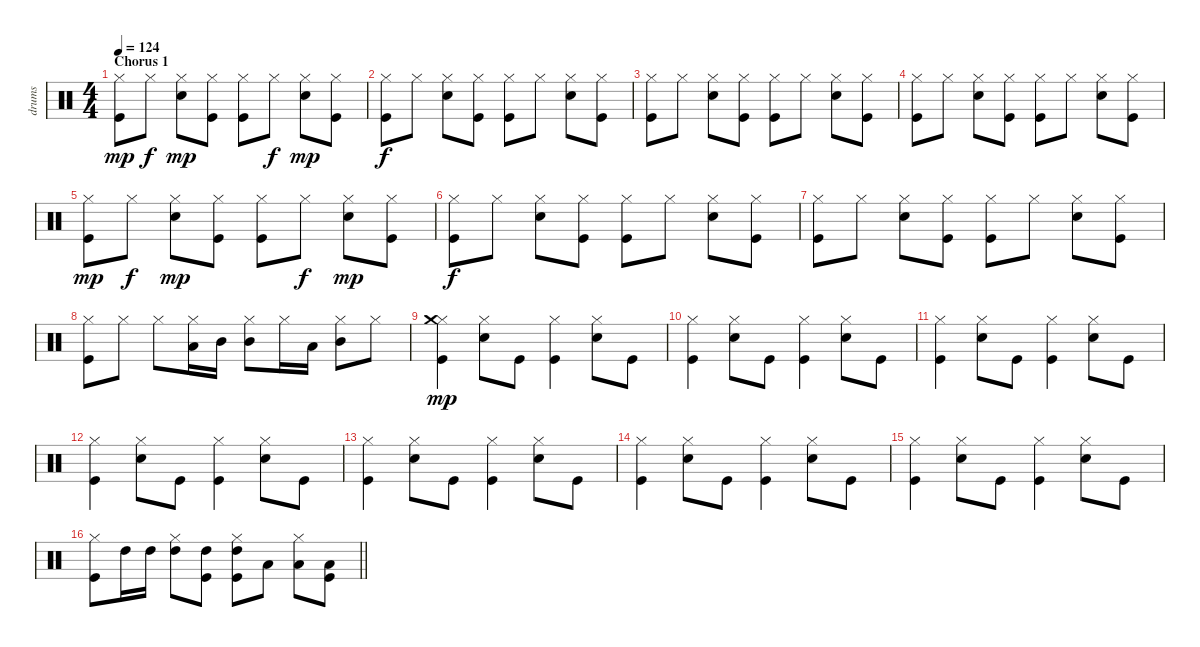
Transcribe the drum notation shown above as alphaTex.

\track ("drums" "drums") {instrument percussion}
\staff {score}
\articulation defaults
\ts (4 4)
\section ("" "Chorus 1")
\tempo 124
\clef neutral
\ks c
("Hi-Hat (closed)" "Kick (hit)").8{dy mp} "Hi-Hat (closed)".8{dy f} ("Electric Snare (hit)" "Hi-Hat (closed)").8{dy mp} ("Hi-Hat (closed)" "Kick (hit)").8 ("Hi-Hat (closed)" "Kick (hit)").8 "Hi-Hat (closed)".8{dy f} ("Electric Snare (hit)" "Hi-Hat (closed)").8{dy mp} ("Hi-Hat (closed)" "Kick (hit)").8 |
("Hi-Hat (closed)" "Kick (hit)").8{dy f} "Hi-Hat (closed)".8 ("Electric Snare (hit)" "Hi-Hat (closed)").8 ("Hi-Hat (closed)" "Kick (hit)").8 ("Hi-Hat (closed)" "Kick (hit)").8 "Hi-Hat (closed)".8 ("Electric Snare (hit)" "Hi-Hat (closed)").8 ("Hi-Hat (closed)" "Kick (hit)").8 |
("Hi-Hat (closed)" "Kick (hit)").8 "Hi-Hat (closed)".8 ("Electric Snare (hit)" "Hi-Hat (closed)").8 ("Hi-Hat (closed)" "Kick (hit)").8 ("Hi-Hat (closed)" "Kick (hit)").8 "Hi-Hat (closed)".8 ("Electric Snare (hit)" "Hi-Hat (closed)").8 ("Hi-Hat (closed)" "Kick (hit)").8 |
("Hi-Hat (closed)" "Kick (hit)").8 "Hi-Hat (closed)".8 ("Electric Snare (hit)" "Hi-Hat (closed)").8 ("Hi-Hat (closed)" "Kick (hit)").8 ("Hi-Hat (closed)" "Kick (hit)").8 "Hi-Hat (closed)".8 ("Electric Snare (hit)" "Hi-Hat (closed)").8 ("Hi-Hat (closed)" "Kick (hit)").8 |
("Hi-Hat (closed)" "Kick (hit)").8{dy mp} "Hi-Hat (closed)".8{dy f} ("Electric Snare (hit)" "Hi-Hat (closed)").8{dy mp} ("Hi-Hat (closed)" "Kick (hit)").8 ("Hi-Hat (closed)" "Kick (hit)").8 "Hi-Hat (closed)".8{dy f} ("Electric Snare (hit)" "Hi-Hat (closed)").8{dy mp} ("Hi-Hat (closed)" "Kick (hit)").8 |
("Hi-Hat (closed)" "Kick (hit)").8{dy f} "Hi-Hat (closed)".8 ("Electric Snare (hit)" "Hi-Hat (closed)").8 ("Hi-Hat (closed)" "Kick (hit)").8 ("Hi-Hat (closed)" "Kick (hit)").8 "Hi-Hat (closed)".8 ("Electric Snare (hit)" "Hi-Hat (closed)").8 ("Hi-Hat (closed)" "Kick (hit)").8 |
("Hi-Hat (closed)" "Kick (hit)").8 "Hi-Hat (closed)".8 ("Electric Snare (hit)" "Hi-Hat (closed)").8 ("Hi-Hat (closed)" "Kick (hit)").8 ("Hi-Hat (closed)" "Kick (hit)").8 "Hi-Hat (closed)".8 ("Electric Snare (hit)" "Hi-Hat (closed)").8 ("Hi-Hat (closed)" "Kick (hit)").8 |
("Hi-Hat (closed)" "Kick (hit)").8 "Hi-Hat (closed)".8 "Hi-Hat (closed)".8 ("Low Tom (hit)" "Hi-Hat (closed)").16 "Mid Tom (hit)".16 ("Mid Tom (hit)" "Hi-Hat (closed)").8 "Hi-Hat (closed)".16 "Low Tom (hit)".16 ("Mid Tom (hit)" "Hi-Hat (closed)").8 "Hi-Hat (closed)".8 |
("Kick (hit)" "Hi-Hat (closed)" "Crash medium (hit)").4{dy mp} ("Electric Snare (hit)" "Hi-Hat (closed)").8 "Kick (hit)".8 ("Kick (hit)" "Hi-Hat (closed)").4 ("Electric Snare (hit)" "Hi-Hat (closed)").8 "Kick (hit)".8 |
("Kick (hit)" "Hi-Hat (closed)").4 ("Electric Snare (hit)" "Hi-Hat (closed)").8 "Kick (hit)".8 ("Kick (hit)" "Hi-Hat (closed)").4 ("Electric Snare (hit)" "Hi-Hat (closed)").8 "Kick (hit)".8 |
("Kick (hit)" "Hi-Hat (closed)").4 ("Electric Snare (hit)" "Hi-Hat (closed)").8 "Kick (hit)".8 ("Kick (hit)" "Hi-Hat (closed)").4 ("Electric Snare (hit)" "Hi-Hat (closed)").8 "Kick (hit)".8 |
("Kick (hit)" "Hi-Hat (closed)").4 ("Electric Snare (hit)" "Hi-Hat (closed)").8 "Kick (hit)".8 ("Kick (hit)" "Hi-Hat (closed)").4 ("Electric Snare (hit)" "Hi-Hat (closed)").8 "Kick (hit)".8 |
("Kick (hit)" "Hi-Hat (closed)").4 ("Electric Snare (hit)" "Hi-Hat (closed)").8 "Kick (hit)".8 ("Kick (hit)" "Hi-Hat (closed)").4 ("Electric Snare (hit)" "Hi-Hat (closed)").8 "Kick (hit)".8 |
("Kick (hit)" "Hi-Hat (closed)").4 ("Electric Snare (hit)" "Hi-Hat (closed)").8 "Kick (hit)".8 ("Kick (hit)" "Hi-Hat (closed)").4 ("Electric Snare (hit)" "Hi-Hat (closed)").8 "Kick (hit)".8 |
("Kick (hit)" "Hi-Hat (closed)").4 ("Electric Snare (hit)" "Hi-Hat (closed)").8 "Kick (hit)".8 ("Kick (hit)" "Hi-Hat (closed)").4 ("Electric Snare (hit)" "Hi-Hat (closed)").8 "Kick (hit)".8 |
\barLineRight lightlight
("Kick (hit)" "Hi-Hat (closed)").8 "High Tom (hit)".16 "High Tom (hit)".16 ("Hi-Hat (closed)" "High Tom (hit)").8 ("Kick (hit)" "High Tom (hit)").8 ("Kick (hit)" "Hi-Hat (closed)" "High Tom (hit)").8 "Low Tom (hit)".8 ("Low Floor Tom (hit)" "Hi-Hat (closed)").8 ("Low Floor Tom (hit)" "Kick (hit)").8
